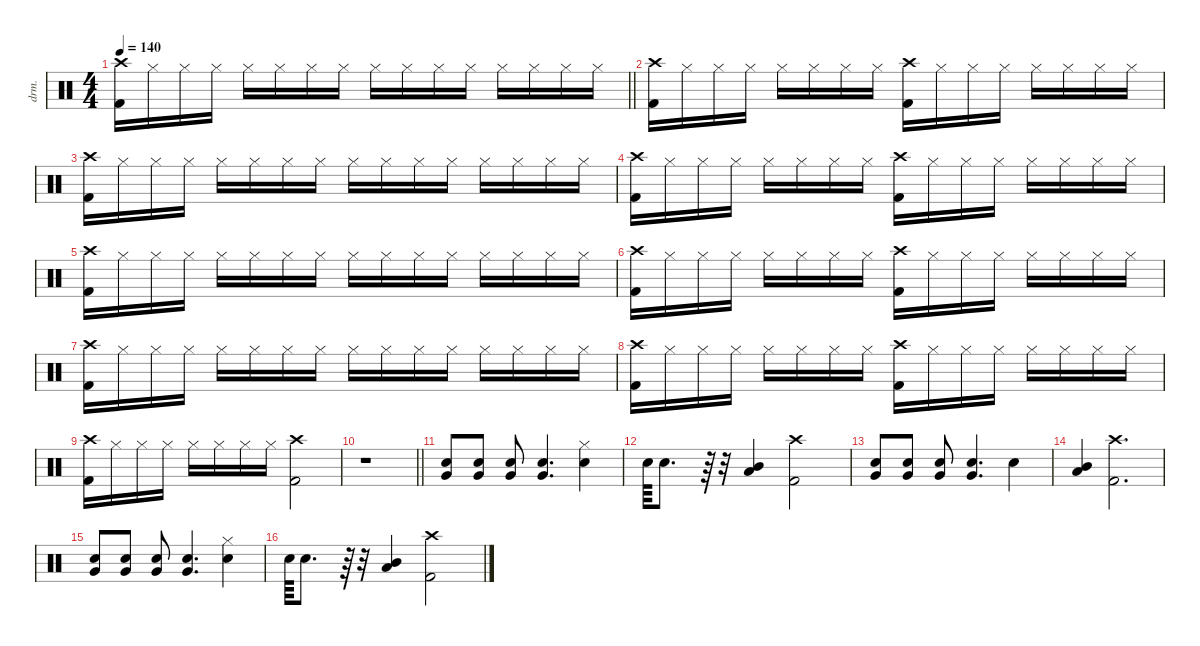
\defaultSystemsLayout 4
\hideDynamics
\bracketExtendMode nobrackets
\otherSystemsTrackNameOrientation horizontal
\track ("Drums" "drm.") {defaultSystemsLayout 4 instrument percussion}
\staff {score}
\articulation defaults
\ts (4 4)
\tempo 140
\clef neutral
\barLineRight lightlight
\ks c
("Crash high (hit)" "Kick (hit) 2").16{dy f beam Down} "Hi-Hat (closed)".16{beam Down} "Hi-Hat (closed)".16{beam Down} "Hi-Hat (closed)".16{beam Down} "Hi-Hat (closed)".16{beam Down} "Hi-Hat (closed)".16{beam Down} "Hi-Hat (closed)".16{beam Down} "Hi-Hat (closed)".16{beam Down} "Hi-Hat (closed)".16{beam Down} "Hi-Hat (closed)".16{beam Down} "Hi-Hat (closed)".16{beam Down} "Hi-Hat (closed)".16{beam Down} "Hi-Hat (closed)".16{beam Down} "Hi-Hat (closed)".16{beam Down} "Hi-Hat (closed)".16{beam Down} "Hi-Hat (closed)".16{beam Down} |
("Crash high (hit)" "Kick (hit) 2").16{beam Down} "Hi-Hat (closed)".16{beam Down} "Hi-Hat (closed)".16{beam Down} "Hi-Hat (closed)".16{beam Down} "Hi-Hat (closed)".16{beam Down} "Hi-Hat (closed)".16{beam Down} "Hi-Hat (closed)".16{beam Down} "Hi-Hat (closed)".16{beam Down} ("Crash high (hit)" "Kick (hit) 2").16{beam Down} "Hi-Hat (closed)".16{beam Down} "Hi-Hat (closed)".16{beam Down} "Hi-Hat (closed)".16{beam Down} "Hi-Hat (closed)".16{beam Down} "Hi-Hat (closed)".16{beam Down} "Hi-Hat (closed)".16{beam Down} "Hi-Hat (closed)".16{beam Down} |
("Crash high (hit)" "Kick (hit) 2").16{beam Down} "Hi-Hat (closed)".16{beam Down} "Hi-Hat (closed)".16{beam Down} "Hi-Hat (closed)".16{beam Down} "Hi-Hat (closed)".16{beam Down} "Hi-Hat (closed)".16{beam Down} "Hi-Hat (closed)".16{beam Down} "Hi-Hat (closed)".16{beam Down} "Hi-Hat (closed)".16{beam Down} "Hi-Hat (closed)".16{beam Down} "Hi-Hat (closed)".16{beam Down} "Hi-Hat (closed)".16{beam Down} "Hi-Hat (closed)".16{beam Down} "Hi-Hat (closed)".16{beam Down} "Hi-Hat (closed)".16{beam Down} "Hi-Hat (closed)".16{beam Down} |
("Crash high (hit)" "Kick (hit) 2").16{beam Down} "Hi-Hat (closed)".16{beam Down} "Hi-Hat (closed)".16{beam Down} "Hi-Hat (closed)".16{beam Down} "Hi-Hat (closed)".16{beam Down} "Hi-Hat (closed)".16{beam Down} "Hi-Hat (closed)".16{beam Down} "Hi-Hat (closed)".16{beam Down} ("Crash high (hit)" "Kick (hit) 2").16{beam Down} "Hi-Hat (closed)".16{beam Down} "Hi-Hat (closed)".16{beam Down} "Hi-Hat (closed)".16{beam Down} "Hi-Hat (closed)".16{beam Down} "Hi-Hat (closed)".16{beam Down} "Hi-Hat (closed)".16{beam Down} "Hi-Hat (closed)".16{beam Down} |
("Crash high (hit)" "Kick (hit) 2").16{beam Down} "Hi-Hat (closed)".16{beam Down} "Hi-Hat (closed)".16{beam Down} "Hi-Hat (closed)".16{beam Down} "Hi-Hat (closed)".16{beam Down} "Hi-Hat (closed)".16{beam Down} "Hi-Hat (closed)".16{beam Down} "Hi-Hat (closed)".16{beam Down} "Hi-Hat (closed)".16{beam Down} "Hi-Hat (closed)".16{beam Down} "Hi-Hat (closed)".16{beam Down} "Hi-Hat (closed)".16{beam Down} "Hi-Hat (closed)".16{beam Down} "Hi-Hat (closed)".16{beam Down} "Hi-Hat (closed)".16{beam Down} "Hi-Hat (closed)".16{beam Down} |
("Crash high (hit)" "Kick (hit) 2").16{beam Down} "Hi-Hat (closed)".16{beam Down} "Hi-Hat (closed)".16{beam Down} "Hi-Hat (closed)".16{beam Down} "Hi-Hat (closed)".16{beam Down} "Hi-Hat (closed)".16{beam Down} "Hi-Hat (closed)".16{beam Down} "Hi-Hat (closed)".16{beam Down} ("Crash high (hit)" "Kick (hit) 2").16{beam Down} "Hi-Hat (closed)".16{beam Down} "Hi-Hat (closed)".16{beam Down} "Hi-Hat (closed)".16{beam Down} "Hi-Hat (closed)".16{beam Down} "Hi-Hat (closed)".16{beam Down} "Hi-Hat (closed)".16{beam Down} "Hi-Hat (closed)".16{beam Down} |
("Crash high (hit)" "Kick (hit) 2").16{beam Down} "Hi-Hat (closed)".16{beam Down} "Hi-Hat (closed)".16{beam Down} "Hi-Hat (closed)".16{beam Down} "Hi-Hat (closed)".16{beam Down} "Hi-Hat (closed)".16{beam Down} "Hi-Hat (closed)".16{beam Down} "Hi-Hat (closed)".16{beam Down} "Hi-Hat (closed)".16{beam Down} "Hi-Hat (closed)".16{beam Down} "Hi-Hat (closed)".16{beam Down} "Hi-Hat (closed)".16{beam Down} "Hi-Hat (closed)".16{beam Down} "Hi-Hat (closed)".16{beam Down} "Hi-Hat (closed)".16{beam Down} "Hi-Hat (closed)".16{beam Down} |
("Crash high (hit)" "Kick (hit) 2").16{beam Down} "Hi-Hat (closed)".16{beam Down} "Hi-Hat (closed)".16{beam Down} "Hi-Hat (closed)".16{beam Down} "Hi-Hat (closed)".16{beam Down} "Hi-Hat (closed)".16{beam Down} "Hi-Hat (closed)".16{beam Down} "Hi-Hat (closed)".16{beam Down} ("Crash high (hit)" "Kick (hit) 2").16{beam Down} "Hi-Hat (closed)".16{beam Down} "Hi-Hat (closed)".16{beam Down} "Hi-Hat (closed)".16{beam Down} "Hi-Hat (closed)".16{beam Down} "Hi-Hat (closed)".16{beam Down} "Hi-Hat (closed)".16{beam Down} "Hi-Hat (closed)".16{beam Down} |
("Crash high (hit)" "Kick (hit) 2").16{beam Down} "Hi-Hat (closed)".16{beam Down} "Hi-Hat (closed)".16{beam Down} "Hi-Hat (closed)".16{beam Down} "Hi-Hat (closed)".16{beam Down} "Hi-Hat (closed)".16{beam Down} "Hi-Hat (closed)".16{beam Down} "Hi-Hat (closed)".16{beam Down} ("Crash high (hit)" "Kick (hit) 2").2{beam Down} |
\barLineRight lightlight
r.1{beam Down} |
("Very Low Tom (hit)" "Snare (hit) 2").8{beam Up} ("Very Low Tom (hit)" "Snare (hit) 2").8{beam Up} ("Very Low Tom (hit)" "Snare (hit) 2").8{beam Up} ("Very Low Tom (hit)" "Snare (hit) 2").4{d beam Up} ("Hi-Hat (closed)" "Snare (hit) 2").4{beam Down} |
"Snare (hit) 2".64{dy fff beam Down} "Snare (hit) 2".8{d dy ff beam Down} r.64{beam Down} r.32{beam Down} ("Mid Tom (hit)" "Low Tom (hit)").4{dy f beam Up} ("Crash high (hit)" "Kick (hit) 2").2{beam Down} |
("Very Low Tom (hit)" "Snare (hit) 2").8{beam Up} ("Very Low Tom (hit)" "Snare (hit) 2").8{beam Up} ("Very Low Tom (hit)" "Snare (hit) 2").8{beam Up} ("Very Low Tom (hit)" "Snare (hit) 2").4{d beam Up} "Snare (hit) 2".4{beam Down} |
("Mid Tom (hit)" "Low Tom (hit)").4{beam Up} ("Crash high (hit)" "Kick (hit) 2").2{d beam Down} |
("Very Low Tom (hit)" "Snare (hit) 2").8{beam Up} ("Very Low Tom (hit)" "Snare (hit) 2").8{beam Up} ("Very Low Tom (hit)" "Snare (hit) 2").8{beam Up} ("Very Low Tom (hit)" "Snare (hit) 2").4{d beam Up} ("Hi-Hat (closed)" "Snare (hit) 2").4{beam Down} |
"Snare (hit) 2".64{dy fff beam Down} "Snare (hit) 2".8{d dy ff beam Down} r.64{beam Down} r.32{beam Down} ("Mid Tom (hit)" "Low Tom (hit)").4{dy f beam Up} ("Crash high (hit)" "Kick (hit) 2").2{beam Down}
